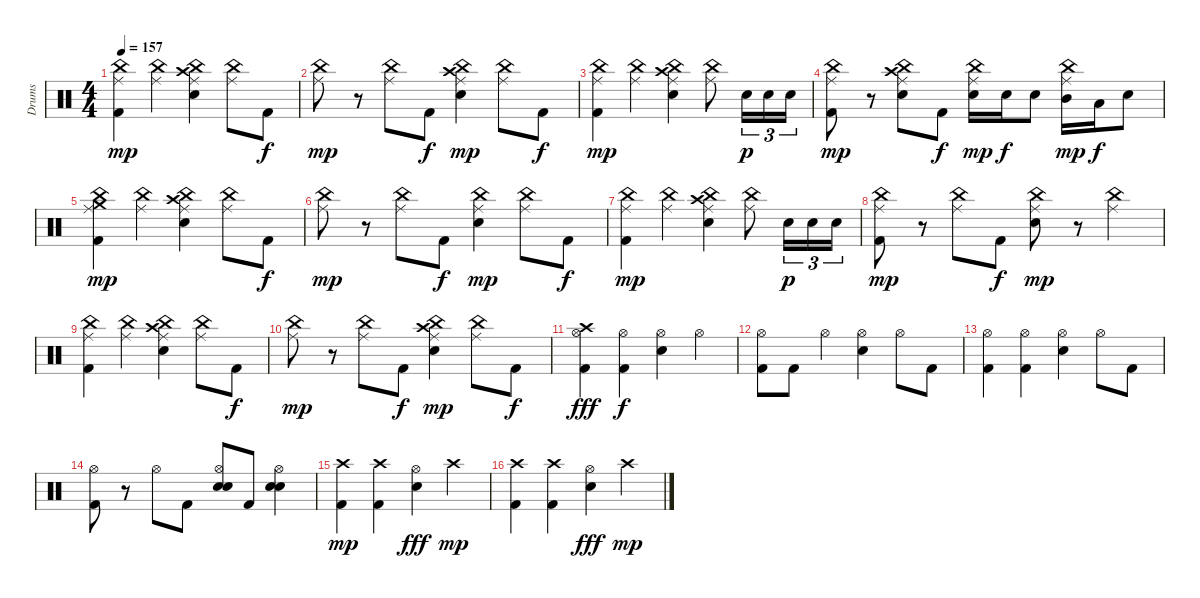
\track ("Drums" "Drums") {instrument percussion}
\staff {score}
\articulation defaults
\ts (4 4)
\tempo 157
\clef neutral
\ks c
("Ride (middle)" "China (hit)" "Kick (hit) 2").4{dy mp} ("Ride (middle)" "China (hit)").4 ("Ride (middle)" "Crash high (hit)" "China (hit)" "Electric Snare (hit)").4 ("Ride (middle)" "China (hit)").8 "Kick (hit) 2".8{dy f} |
("Ride (middle)" "China (hit)").8{dy mp} r.8 ("Ride (middle)" "China (hit)").8 "Kick (hit) 2".8{dy f} ("Ride (middle)" "Crash high (hit)" "China (hit)" "Electric Snare (hit)").4{dy mp} ("Ride (middle)" "China (hit)").8 "Kick (hit) 2".8{dy f} |
("Ride (middle)" "China (hit)" "Kick (hit) 2").4{dy mp} ("Ride (middle)" "China (hit)").4 ("Ride (middle)" "Crash high (hit)" "China (hit)" "Electric Snare (hit)").4 ("Ride (middle)" "China (hit)").8 "Electric Snare (hit)".16{tu (3 2) dy p} "Electric Snare (hit)".16{tu (3 2)} "Electric Snare (hit)".16{tu (3 2)} |
("Ride (middle)" "China (hit)" "Kick (hit) 2").8{dy mp} r.8 ("Ride (middle)" "Crash high (hit)" "China (hit)" "Electric Snare (hit)").8 "Kick (hit) 2".8{dy f} ("Ride (middle)" "China (hit)" "Electric Snare (hit)").16{dy mp} "Electric Snare (hit)".16{dy f} "Electric Snare (hit)".8 ("Ride (middle)" "China (hit)" "Mid Tom (hit)").16{dy mp} "Low Tom (hit)".16{dy f} "Electric Snare (hit)".8 |
("Ride (middle)" "Crash medium (hit)" "China (hit)" "Kick (hit) 2").4{dy mp} ("Ride (middle)" "China (hit)").4 ("Ride (middle)" "Crash high (hit)" "China (hit)" "Electric Snare (hit)").4 ("Ride (middle)" "China (hit)").8 "Kick (hit) 2".8{dy f} |
("Ride (middle)" "China (hit)").8{dy mp} r.8 ("Ride (middle)" "China (hit)").8 "Kick (hit) 2".8{dy f} ("Ride (middle)" "China (hit)" "Electric Snare (hit)").4{dy mp} ("Ride (middle)" "China (hit)").8 "Kick (hit) 2".8{dy f} |
("Ride (middle)" "China (hit)" "Kick (hit) 2").4{dy mp} ("Ride (middle)" "China (hit)").4 ("Ride (middle)" "Crash high (hit)" "China (hit)" "Electric Snare (hit)").4 ("Ride (middle)" "China (hit)").8 "Electric Snare (hit)".16{tu (3 2) dy p} "Electric Snare (hit)".16{tu (3 2)} "Electric Snare (hit)".16{tu (3 2)} |
("Ride (middle)" "China (hit)" "Kick (hit) 2").8{dy mp} r.8 ("Ride (middle)" "China (hit)").8 "Kick (hit) 2".8{dy f} ("Ride (middle)" "China (hit)" "Electric Snare (hit)").8{dy mp} r.8 ("Ride (middle)" "China (hit)").4 |
("Ride (middle)" "China (hit)" "Kick (hit) 2").4 ("Ride (middle)" "China (hit)").4 ("Ride (middle)" "Crash high (hit)" "China (hit)" "Electric Snare (hit)").4 ("Ride (middle)" "China (hit)").8 "Kick (hit) 2".8{dy f} |
("Ride (middle)" "China (hit)").8{dy mp} r.8 ("Ride (middle)" "China (hit)").8 "Kick (hit) 2".8{dy f} ("Ride (middle)" "Crash high (hit)" "China (hit)" "Electric Snare (hit)").4{dy mp} ("Ride (middle)" "China (hit)").8 "Kick (hit) 2".8{dy f} |
("Hi-Hat (open)" "Crash high (hit)" "Kick (hit) 2").4{dy fff} ("Hi-Hat (open)" "Kick (hit) 2").4{dy f} ("Hi-Hat (open)" "Electric Snare (hit)").4 "Hi-Hat (open)".4 |
("Hi-Hat (open)" "Kick (hit) 2").8 "Kick (hit) 2".8 "Hi-Hat (open)".4 ("Hi-Hat (open)" "Electric Snare (hit)").4 "Hi-Hat (open)".8 "Kick (hit) 2".8 |
("Hi-Hat (open)" "Kick (hit) 2").4 ("Hi-Hat (open)" "Kick (hit) 2").4 ("Hi-Hat (open)" "Electric Snare (hit)").4 "Hi-Hat (open)".8 "Kick (hit) 2".8 |
("Hi-Hat (open)" "Kick (hit) 2").8 r.8 "Hi-Hat (open)".8 "Kick (hit) 2".8 ("Hi-Hat (open)" "Snare (hit) 2" "Electric Snare (hit)").8 "Kick (hit) 2".8 ("Hi-Hat (open)" "Snare (hit) 2" "Electric Snare (hit)").4 |
("Crash high (hit)" "Kick (hit) 2").4{dy mp} ("Crash high (hit)" "Kick (hit) 2").4 ("Hi-Hat (open)" "Snare (hit) 2").4{dy fff} "Crash high (hit)".4{dy mp} |
("Crash high (hit)" "Kick (hit) 2").4 ("Crash high (hit)" "Kick (hit) 2").4 ("Hi-Hat (open)" "Snare (hit) 2").4{dy fff} "Crash high (hit)".4{dy mp}
